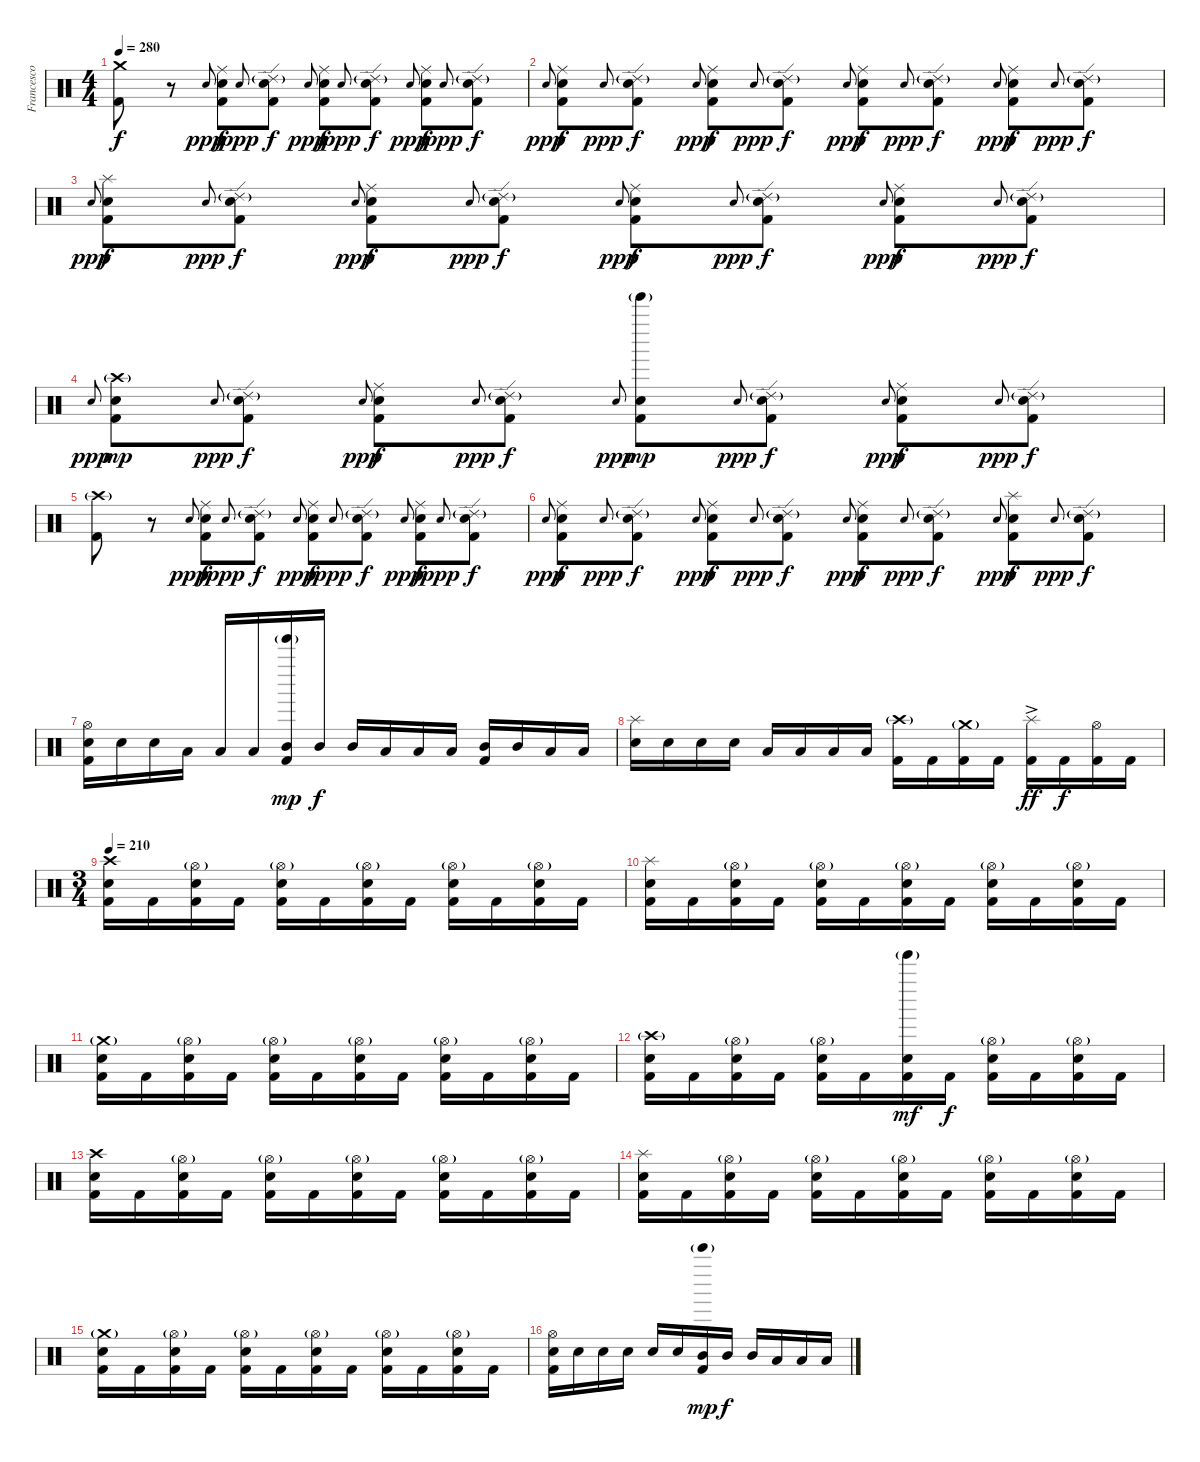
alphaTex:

\track ("Francesco Ferrini" "Francesco ") {instrument percussion}
\staff {score}
\articulation defaults
\ts (4 4)
\tempo 280
\clef neutral
\ks c
("Crash medium (hit)" "Kick (hit) 2").8{dy f} r.8 "Electric Snare (hit)"{h}.8{gr onbeat dy ppp} ("Ride (middle)" "Electric Snare (hit)" "Kick (hit) 2").8{dy f} "Electric Snare (hit)"{h}.8{gr onbeat dy ppp} ("Ride (edge) 2"{g} "Electric Snare (hit)" "Kick (hit) 2").8{dy f} "Electric Snare (hit)"{h}.8{gr onbeat dy ppp} ("Ride (middle)" "Electric Snare (hit)" "Kick (hit) 2").8{dy f} "Electric Snare (hit)"{h}.8{gr onbeat dy ppp} ("Ride (edge) 2"{g} "Electric Snare (hit)" "Kick (hit) 2").8{dy f} "Electric Snare (hit)"{h}.8{gr onbeat dy ppp} ("Ride (middle)" "Electric Snare (hit)" "Kick (hit) 2").8{dy f} "Electric Snare (hit)"{h}.8{gr onbeat dy ppp} ("Ride (edge) 2"{g} "Electric Snare (hit)" "Kick (hit) 2").8{dy f} |
"Electric Snare (hit)"{h}.8{gr onbeat dy ppp} ("Ride (middle)" "Electric Snare (hit)" "Kick (hit) 2").8{dy f} "Electric Snare (hit)"{h}.8{gr onbeat dy ppp} ("Ride (edge) 2"{g} "Electric Snare (hit)" "Kick (hit) 2").8{dy f} "Electric Snare (hit)"{h}.8{gr onbeat dy ppp} ("Ride (middle)" "Electric Snare (hit)" "Kick (hit) 2").8{dy f} "Electric Snare (hit)"{h}.8{gr onbeat dy ppp} ("Ride (edge) 2"{g} "Electric Snare (hit)" "Kick (hit) 2").8{dy f} "Electric Snare (hit)"{h}.8{gr onbeat dy ppp} ("Ride (middle)" "Electric Snare (hit)" "Kick (hit) 2").8{dy f} "Electric Snare (hit)"{h}.8{gr onbeat dy ppp} ("Ride (edge) 2"{g} "Electric Snare (hit)" "Kick (hit) 2").8{dy f} "Electric Snare (hit)"{h}.8{gr onbeat dy ppp} ("Ride (middle)" "Electric Snare (hit)" "Kick (hit) 2").8{dy f} "Electric Snare (hit)"{h}.8{gr onbeat dy ppp} ("Ride (edge) 2"{g} "Electric Snare (hit)" "Kick (hit) 2").8{dy f} |
"Electric Snare (hit)"{h}.8{gr onbeat dy ppp} ("Splash (hit)" "Electric Snare (hit)" "Kick (hit) 2").8{dy f} "Electric Snare (hit)"{h}.8{gr onbeat dy ppp} ("Ride (edge) 2"{g} "Electric Snare (hit)" "Kick (hit) 2").8{dy f} "Electric Snare (hit)"{h}.8{gr onbeat dy ppp} ("Ride (middle)" "Electric Snare (hit)" "Kick (hit) 2").8{dy f} "Electric Snare (hit)"{h}.8{gr onbeat dy ppp} ("Ride (edge) 2"{g} "Electric Snare (hit)" "Kick (hit) 2").8{dy f} "Electric Snare (hit)"{h}.8{gr onbeat dy ppp} ("Ride (middle)" "Electric Snare (hit)" "Kick (hit) 2").8{dy f} "Electric Snare (hit)"{h}.8{gr onbeat dy ppp} ("Ride (edge) 2"{g} "Electric Snare (hit)" "Kick (hit) 2").8{dy f} "Electric Snare (hit)"{h}.8{gr onbeat dy ppp} ("Ride (middle)" "Electric Snare (hit)" "Kick (hit) 2").8{dy f} "Electric Snare (hit)"{h}.8{gr onbeat dy ppp} ("Ride (edge) 2"{g} "Electric Snare (hit)" "Kick (hit) 2").8{dy f} |
"Electric Snare (hit)"{h}.8{gr onbeat dy ppp} ("Crash high (hit)"{g} "Electric Snare (hit)" "Kick (hit) 2").8{dy mp} "Electric Snare (hit)"{h}.8{gr onbeat dy ppp} ("Ride (edge) 2"{g} "Electric Snare (hit)" "Kick (hit) 2").8{dy f} "Electric Snare (hit)"{h}.8{gr onbeat dy ppp} ("Ride (middle)" "Electric Snare (hit)" "Kick (hit) 2").8{dy f} "Electric Snare (hit)"{h}.8{gr onbeat dy ppp} ("Ride (edge) 2"{g} "Electric Snare (hit)" "Kick (hit) 2").8{dy f} "Electric Snare (hit)"{h}.8{gr onbeat dy ppp} ("Tinkle Bell (hit)"{g} "Electric Snare (hit)" "Kick (hit) 2").8{dy mp} "Electric Snare (hit)"{h}.8{gr onbeat dy ppp} ("Ride (edge) 2"{g} "Electric Snare (hit)" "Kick (hit) 2").8{dy f} "Electric Snare (hit)"{h}.8{gr onbeat dy ppp} ("Ride (middle)" "Electric Snare (hit)" "Kick (hit) 2").8{dy f} "Electric Snare (hit)"{h}.8{gr onbeat dy ppp} ("Ride (edge) 2"{g} "Electric Snare (hit)" "Kick (hit) 2").8{dy f} |
("Crash high (hit)"{g} "Kick (hit) 2").8 r.8 "Electric Snare (hit)"{h}.8{gr onbeat dy ppp} ("Ride (middle)" "Electric Snare (hit)" "Kick (hit) 2").8{dy f} "Electric Snare (hit)"{h}.8{gr onbeat dy ppp} ("Ride (edge) 2"{g} "Electric Snare (hit)" "Kick (hit) 2").8{dy f} "Electric Snare (hit)"{h}.8{gr onbeat dy ppp} ("Ride (middle)" "Electric Snare (hit)" "Kick (hit) 2").8{dy f} "Electric Snare (hit)"{h}.8{gr onbeat dy ppp} ("Ride (edge) 2"{g} "Electric Snare (hit)" "Kick (hit) 2").8{dy f} "Electric Snare (hit)"{h}.8{gr onbeat dy ppp} ("Ride (middle)" "Electric Snare (hit)" "Kick (hit) 2").8{dy f} "Electric Snare (hit)"{h}.8{gr onbeat dy ppp} ("Ride (edge) 2"{g} "Electric Snare (hit)" "Kick (hit) 2").8{dy f} |
"Electric Snare (hit)"{h}.8{gr onbeat dy ppp} ("Ride (middle)" "Electric Snare (hit)" "Kick (hit) 2").8{dy f} "Electric Snare (hit)"{h}.8{gr onbeat dy ppp} ("Ride (edge) 2"{g} "Electric Snare (hit)" "Kick (hit) 2").8{dy f} "Electric Snare (hit)"{h}.8{gr onbeat dy ppp} ("Ride (middle)" "Electric Snare (hit)" "Kick (hit) 2").8{dy f} "Electric Snare (hit)"{h}.8{gr onbeat dy ppp} ("Ride (edge) 2"{g} "Electric Snare (hit)" "Kick (hit) 2").8{dy f} "Electric Snare (hit)"{h}.8{gr onbeat dy ppp} ("Ride (middle)" "Electric Snare (hit)" "Kick (hit) 2").8{dy f} "Electric Snare (hit)"{h}.8{gr onbeat dy ppp} ("Ride (edge) 2"{g} "Electric Snare (hit)" "Kick (hit) 2").8{dy f} "Electric Snare (hit)"{h}.8{gr onbeat dy ppp} ("Splash (hit)" "Electric Snare (hit)" "Kick (hit) 2").8{dy f} "Electric Snare (hit)"{h}.8{gr onbeat dy ppp} ("Ride (edge) 2"{g} "Electric Snare (hit)" "Kick (hit) 2").8{dy f} |
("Hi-Hat (open)" "Electric Snare (hit)" "Kick (hit) 2").16 "Electric Snare (hit)".16 "Electric Snare (hit)".16 "Low Tom (hit)".16 "Low Tom (hit)".16 "Low Tom (hit)".16 ("Tinkle Bell (hit)"{g} "Mid Tom (hit)" "Kick (hit) 2").16{dy mp} "Mid Tom (hit)".16{dy f} "Mid Tom (hit)".16 "Low Tom (hit)".16 "Low Tom (hit)".16 "Low Tom (hit)".16 ("Mid Tom (hit)" "Kick (hit) 2").16 "Mid Tom (hit)".16 "Low Tom (hit)".16 "Low Tom (hit)".16 |
("Splash (hit)" "Electric Snare (hit)").16 "Electric Snare (hit)".16 "Electric Snare (hit)".16 "Electric Snare (hit)".16 "Low Tom (hit)".16 "Low Tom (hit)".16 "Low Tom (hit)".16 "Low Tom (hit)".16 ("Crash high (hit)"{g} "Kick (hit) 2").16 "Kick (hit) 2".16 ("Crash medium (hit)"{g} "Kick (hit) 2").16 "Kick (hit) 2".16 ("Splash (hit)"{ac} "Kick (hit) 2").16{dy ff} "Kick (hit) 2".16{dy f} ("Hi-Hat (open)" "Kick (hit) 2").16 "Kick (hit) 2".16 |
\ts (3 4)
\tempo 210
("Crash high (hit)" "Electric Snare (hit)" "Kick (hit) 2").16 "Kick (hit) 2".16 ("Hi-Hat (open)"{g} "Electric Snare (hit)" "Kick (hit) 2").16 "Kick (hit) 2".16 ("Hi-Hat (open)"{g} "Electric Snare (hit)" "Kick (hit) 2").16 "Kick (hit) 2".16 ("Hi-Hat (open)"{g} "Electric Snare (hit)" "Kick (hit) 2").16 "Kick (hit) 2".16 ("Hi-Hat (open)"{g} "Electric Snare (hit)" "Kick (hit) 2").16 "Kick (hit) 2".16 ("Hi-Hat (open)"{g} "Electric Snare (hit)" "Kick (hit) 2").16 "Kick (hit) 2".16 |
("Splash (hit)" "Electric Snare (hit)" "Kick (hit) 2").16 "Kick (hit) 2".16 ("Hi-Hat (open)"{g} "Electric Snare (hit)" "Kick (hit) 2").16 "Kick (hit) 2".16 ("Hi-Hat (open)"{g} "Electric Snare (hit)" "Kick (hit) 2").16 "Kick (hit) 2".16 ("Hi-Hat (open)"{g} "Electric Snare (hit)" "Kick (hit) 2").16 "Kick (hit) 2".16 ("Hi-Hat (open)"{g} "Electric Snare (hit)" "Kick (hit) 2").16 "Kick (hit) 2".16 ("Hi-Hat (open)"{g} "Electric Snare (hit)" "Kick (hit) 2").16 "Kick (hit) 2".16 |
("Crash medium (hit)"{g} "Electric Snare (hit)" "Kick (hit) 2").16 "Kick (hit) 2".16 ("Hi-Hat (open)"{g} "Electric Snare (hit)" "Kick (hit) 2").16 "Kick (hit) 2".16 ("Hi-Hat (open)"{g} "Electric Snare (hit)" "Kick (hit) 2").16 "Kick (hit) 2".16 ("Hi-Hat (open)"{g} "Electric Snare (hit)" "Kick (hit) 2").16 "Kick (hit) 2".16 ("Hi-Hat (open)"{g} "Electric Snare (hit)" "Kick (hit) 2").16 "Kick (hit) 2".16 ("Hi-Hat (open)"{g} "Electric Snare (hit)" "Kick (hit) 2").16 "Kick (hit) 2".16 |
("Crash high (hit)"{g} "Electric Snare (hit)" "Kick (hit) 2").16 "Kick (hit) 2".16 ("Hi-Hat (open)"{g} "Electric Snare (hit)" "Kick (hit) 2").16 "Kick (hit) 2".16 ("Hi-Hat (open)"{g} "Electric Snare (hit)" "Kick (hit) 2").16 "Kick (hit) 2".16 ("Tinkle Bell (hit)"{g} "Electric Snare (hit)" "Kick (hit) 2").16{dy mf} "Kick (hit) 2".16{dy f} ("Hi-Hat (open)"{g} "Electric Snare (hit)" "Kick (hit) 2").16 "Kick (hit) 2".16 ("Hi-Hat (open)"{g} "Electric Snare (hit)" "Kick (hit) 2").16 "Kick (hit) 2".16 |
("Crash high (hit)" "Electric Snare (hit)" "Kick (hit) 2").16 "Kick (hit) 2".16 ("Hi-Hat (open)"{g} "Electric Snare (hit)" "Kick (hit) 2").16 "Kick (hit) 2".16 ("Hi-Hat (open)"{g} "Electric Snare (hit)" "Kick (hit) 2").16 "Kick (hit) 2".16 ("Hi-Hat (open)"{g} "Electric Snare (hit)" "Kick (hit) 2").16 "Kick (hit) 2".16 ("Hi-Hat (open)"{g} "Electric Snare (hit)" "Kick (hit) 2").16 "Kick (hit) 2".16 ("Hi-Hat (open)"{g} "Electric Snare (hit)" "Kick (hit) 2").16 "Kick (hit) 2".16 |
("Splash (hit)" "Electric Snare (hit)" "Kick (hit) 2").16 "Kick (hit) 2".16 ("Hi-Hat (open)"{g} "Electric Snare (hit)" "Kick (hit) 2").16 "Kick (hit) 2".16 ("Hi-Hat (open)"{g} "Electric Snare (hit)" "Kick (hit) 2").16 "Kick (hit) 2".16 ("Hi-Hat (open)"{g} "Electric Snare (hit)" "Kick (hit) 2").16 "Kick (hit) 2".16 ("Hi-Hat (open)"{g} "Electric Snare (hit)" "Kick (hit) 2").16 "Kick (hit) 2".16 ("Hi-Hat (open)"{g} "Electric Snare (hit)" "Kick (hit) 2").16 "Kick (hit) 2".16 |
("Crash medium (hit)"{g} "Electric Snare (hit)" "Kick (hit) 2").16 "Kick (hit) 2".16 ("Hi-Hat (open)"{g} "Electric Snare (hit)" "Kick (hit) 2").16 "Kick (hit) 2".16 ("Hi-Hat (open)"{g} "Electric Snare (hit)" "Kick (hit) 2").16 "Kick (hit) 2".16 ("Hi-Hat (open)"{g} "Electric Snare (hit)" "Kick (hit) 2").16 "Kick (hit) 2".16 ("Hi-Hat (open)"{g} "Electric Snare (hit)" "Kick (hit) 2").16 "Kick (hit) 2".16 ("Hi-Hat (open)"{g} "Electric Snare (hit)" "Kick (hit) 2").16 "Kick (hit) 2".16 |
("Hi-Hat (open)" "Electric Snare (hit)" "Kick (hit) 2").16 "Electric Snare (hit)".16 "Electric Snare (hit)".16 "Electric Snare (hit)".16 "Electric Snare (hit)".16 "Electric Snare (hit)".16 ("Tinkle Bell (hit)"{g} "Mid Tom (hit)" "Kick (hit) 2").16{dy mp} "Mid Tom (hit)".16{dy f} "Mid Tom (hit)".16 "Low Tom (hit)".16 "Low Tom (hit)".16 "Low Tom (hit)".16
